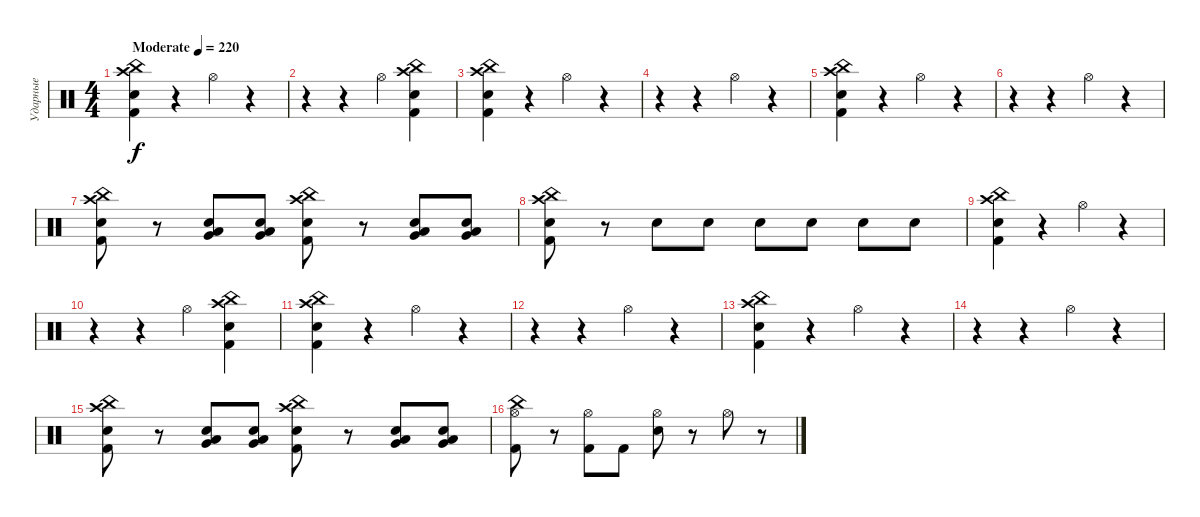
\track ("Ударные" "Ударные") {instrument percussion}
\staff {score}
\articulation defaults
\ts (4 4)
\tempo (220 "Moderate")
\clef neutral
\ks c
("Kick (hit) 2" "Electric Snare (hit)" "Crash high (hit)" "China (hit)").4{dy f} r.4 "Hi-Hat (open)".4 r.4 |
r.4 r.4 "Hi-Hat (open)".4 ("Kick (hit) 2" "Electric Snare (hit)" "Crash high (hit)" "China (hit)").4 |
("Crash high (hit)" "China (hit)" "Kick (hit) 2" "Electric Snare (hit)").4 r.4 "Hi-Hat (open)".4 r.4 |
r.4 r.4 "Hi-Hat (open)".4 r.4 |
("Kick (hit) 2" "Electric Snare (hit)" "Crash high (hit)" "China (hit)").4 r.4 "Hi-Hat (open)".4 r.4 |
r.4 r.4 "Hi-Hat (open)".4 r.4 |
("Kick (hit) 2" "Electric Snare (hit)" "Crash high (hit)" "China (hit)").8 r.8 ("Very Low Tom (hit)" "Low Floor Tom (hit)" "Snare (hit) 2").8 ("Very Low Tom (hit)" "Low Floor Tom (hit)" "Snare (hit) 2").8 ("Kick (hit) 2" "Electric Snare (hit)" "Crash high (hit)" "China (hit)").8 r.8 ("Snare (hit) 2" "Low Floor Tom (hit)" "Very Low Tom (hit)").8 ("Very Low Tom (hit)" "Low Floor Tom (hit)" "Snare (hit) 2").8 |
("Kick (hit) 2" "Electric Snare (hit)" "Crash high (hit)" "China (hit)").8 r.8 "Electric Snare (hit)".8 "Electric Snare (hit)".8 "Electric Snare (hit)".8 "Snare (hit) 2".8 "Snare (hit) 2".8 "Snare (hit) 2".8 |
("Kick (hit) 2" "Electric Snare (hit)" "Crash high (hit)" "China (hit)").4 r.4 "Hi-Hat (open)".4 r.4 |
r.4 r.4 "Hi-Hat (open)".4 ("Kick (hit) 2" "Electric Snare (hit)" "Crash high (hit)" "China (hit)").4 |
("Crash high (hit)" "China (hit)" "Kick (hit) 2" "Electric Snare (hit)").4 r.4 "Hi-Hat (open)".4 r.4 |
r.4 r.4 "Hi-Hat (open)".4 r.4 |
("Kick (hit) 2" "Electric Snare (hit)" "Crash high (hit)" "China (hit)").4 r.4 "Hi-Hat (open)".4 r.4 |
r.4 r.4 "Hi-Hat (open)".4 r.4 |
("Kick (hit) 2" "Electric Snare (hit)" "Crash high (hit)" "China (hit)").8 r.8 ("Very Low Tom (hit)" "Low Floor Tom (hit)" "Snare (hit) 2").8 ("Very Low Tom (hit)" "Low Floor Tom (hit)" "Snare (hit) 2").8 ("Kick (hit) 2" "Electric Snare (hit)" "Crash high (hit)" "China (hit)").8 r.8 ("Snare (hit) 2" "Low Floor Tom (hit)" "Very Low Tom (hit)").8 ("Very Low Tom (hit)" "Low Floor Tom (hit)" "Snare (hit) 2").8 |
("Kick (hit) 2" "Hi-Hat (open)" "China (hit)").8 r.8 ("Kick (hit) 2" "Hi-Hat (open)").8 "Kick (hit) 2".8 ("Electric Snare (hit)" "Hi-Hat (open)").8 r.8 "Hi-Hat (open)".8 r.8
